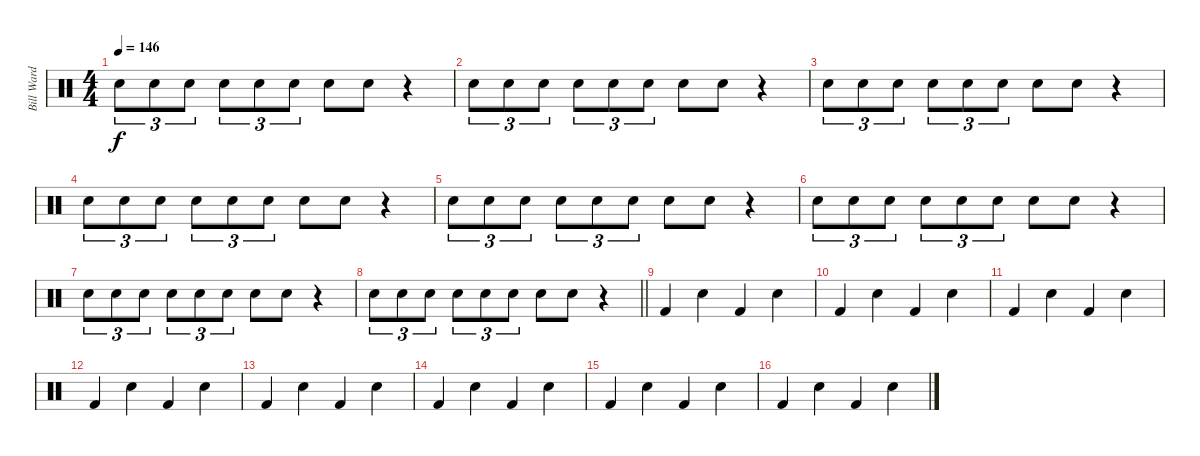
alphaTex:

\track ("Bill Ward" "Bill Ward") {instrument percussion}
\staff {score}
\articulation defaults
\ts (4 4)
\tempo 146
\clef neutral
\ks c "Snare (hit) 2".8{tu (3 2) dy f} "Snare (hit) 2".8{tu (3 2)} "Snare (hit) 2".8{tu (3 2)} "Snare (hit) 2".8{tu (3 2)} "Snare (hit) 2".8{tu (3 2)} "Snare (hit) 2".8{tu (3 2)} "Snare (hit) 2".8 "Snare (hit) 2".8
r.4 |
"Snare (hit) 2".8{tu (3 2)} "Snare (hit) 2".8{tu (3 2)} "Snare (hit) 2".8{tu (3 2)} "Snare (hit) 2".8{tu (3 2)} "Snare (hit) 2".8{tu (3 2)} "Snare (hit) 2".8{tu (3 2)} "Snare (hit) 2".8 "Snare (hit) 2".8 r.4 |
"Snare (hit) 2".8{tu (3 2)} "Snare (hit) 2".8{tu (3 2)} "Snare (hit) 2".8{tu (3 2)} "Snare (hit) 2".8{tu (3 2)} "Snare (hit) 2".8{tu (3 2)} "Snare (hit) 2".8{tu (3 2)} "Snare (hit) 2".8 "Snare (hit) 2".8 r.4 |
"Snare (hit) 2".8{tu (3 2)} "Snare (hit) 2".8{tu (3 2)} "Snare (hit) 2".8{tu (3 2)} "Snare (hit) 2".8{tu (3 2)} "Snare (hit) 2".8{tu (3 2)} "Snare (hit) 2".8{tu (3 2)} "Snare (hit) 2".8 "Snare (hit) 2".8 r.4 |
"Snare (hit) 2".8{tu (3 2)} "Snare (hit) 2".8{tu (3 2)} "Snare (hit) 2".8{tu (3 2)} "Snare (hit) 2".8{tu (3 2)} "Snare (hit) 2".8{tu (3 2)} "Snare (hit) 2".8{tu (3 2)} "Snare (hit) 2".8 "Snare (hit) 2".8 r.4 |
"Snare (hit) 2".8{tu (3 2)} "Snare (hit) 2".8{tu (3 2)} "Snare (hit) 2".8{tu (3 2)} "Snare (hit) 2".8{tu (3 2)} "Snare (hit) 2".8{tu (3 2)} "Snare (hit) 2".8{tu (3 2)} "Snare (hit) 2".8 "Snare (hit) 2".8 r.4 |
"Snare (hit) 2".8{tu (3 2)} "Snare (hit) 2".8{tu (3 2)} "Snare (hit) 2".8{tu (3 2)} "Snare (hit) 2".8{tu (3 2)} "Snare (hit) 2".8{tu (3 2)} "Snare (hit) 2".8{tu (3 2)} "Snare (hit) 2".8 "Snare (hit) 2".8 r.4 |
\barLineRight lightlight "Snare (hit) 2".8{tu (3 2)} "Snare (hit) 2".8{tu (3 2)} "Snare (hit) 2".8{tu (3 2)} "Snare (hit) 2".8{tu (3 2)} "Snare (hit) 2".8{tu (3 2)} "Snare (hit) 2".8{tu (3 2)} "Snare (hit) 2".8 "Snare (hit) 2".8
r.4 |
"Kick (hit) 2".4 "Snare (hit) 2".4 "Kick (hit) 2".4 "Snare (hit) 2".4 |
"Kick (hit) 2".4 "Snare (hit) 2".4 "Kick (hit) 2".4 "Snare (hit) 2".4 |
"Kick (hit) 2".4 "Snare (hit) 2".4 "Kick (hit) 2".4 "Snare (hit) 2".4 |
"Kick (hit) 2".4 "Snare (hit) 2".4 "Kick (hit) 2".4 "Snare (hit) 2".4 |
"Kick (hit) 2".4 "Snare (hit) 2".4 "Kick (hit) 2".4 "Snare (hit) 2".4 |
"Kick (hit) 2".4 "Snare (hit) 2".4 "Kick (hit) 2".4 "Snare (hit) 2".4 |
"Kick (hit) 2".4 "Snare (hit) 2".4 "Kick (hit) 2".4 "Snare (hit) 2".4 |
"Kick (hit) 2".4 "Snare (hit) 2".4 "Kick (hit) 2".4 "Snare (hit) 2".4
